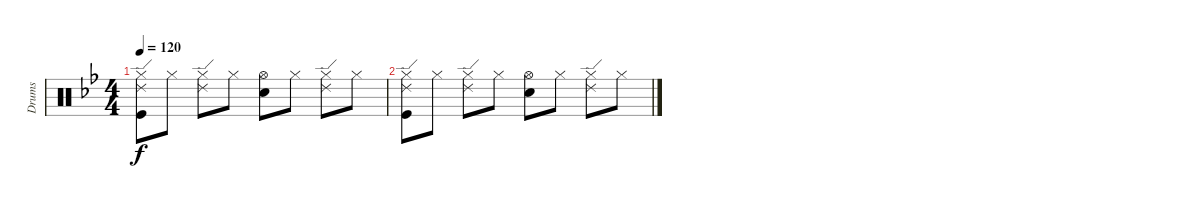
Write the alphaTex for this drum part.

\track ("Drums" "Drums") {instrument percussion}
\staff {score}
\articulation defaults
\ts (4 4)
\tempo 120
\clef neutral
\ks gminor
("Hi-Hat (closed)" "Ride (edge) 2" "Kick (hit)").8{dy f} "Hi-Hat (closed)".8 ("Hi-Hat (closed)" "Ride (edge) 2").8 "Hi-Hat (closed)".8 ("Hi-Hat (open)" "Electric Snare (hit)").8 "Hi-Hat (closed)".8 ("Hi-Hat (closed)" "Ride (edge) 2").8 "Hi-Hat (closed)".8 |
("Hi-Hat (closed)" "Ride (edge) 2" "Kick (hit)").8 "Hi-Hat (closed)".8 ("Hi-Hat (closed)" "Ride (edge) 2").8 "Hi-Hat (closed)".8 ("Hi-Hat (open)" "Electric Snare (hit)").8 "Hi-Hat (closed)".8 ("Hi-Hat (closed)" "Ride (edge) 2").8 "Hi-Hat (closed)".8
